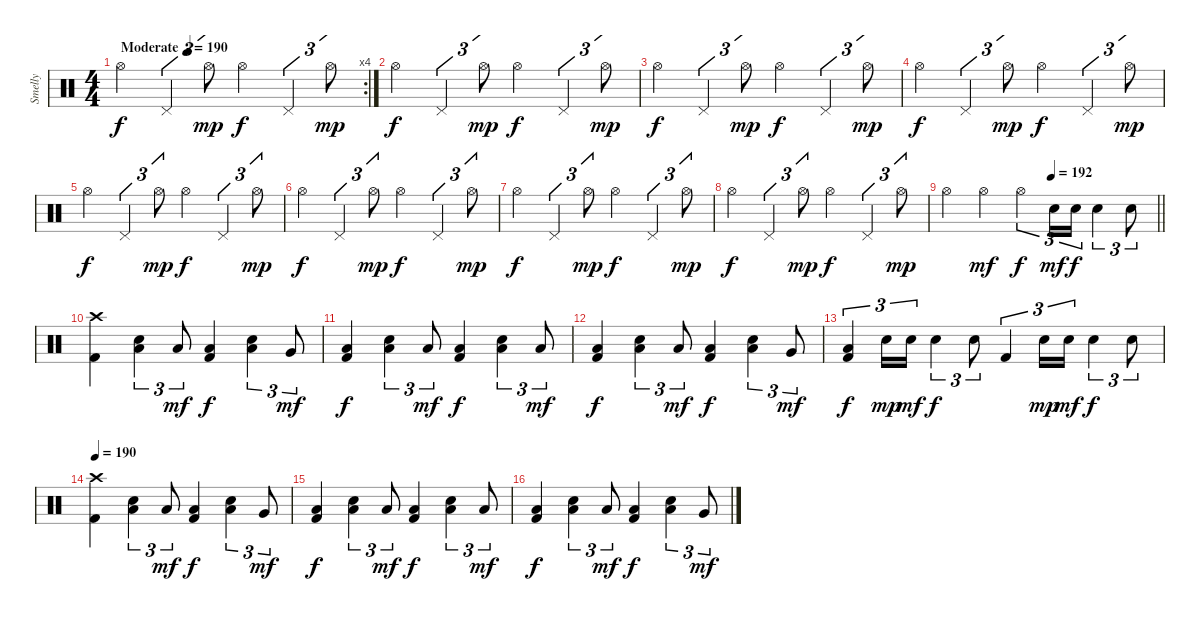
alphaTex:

\track ("Smelly" "Smelly") {instrument percussion}
\staff {score}
\articulation defaults
\rc 4
\ts (4 4)
\tempo (190 "Moderate")
\clef neutral
\ks c "Hi-Hat (open)".4{dy f} "Pedal Hi-Hat (hit)".4{tu (3 2)} "Hi-Hat (open)".8{tu (3 2) dy mp} "Hi-Hat (open)".4{dy f} "Pedal Hi-Hat (hit)".4{tu (3 2)} "Hi-Hat (open)".8{tu (3 2) dy mp}
|
"Hi-Hat (open)".4{dy f} "Pedal Hi-Hat (hit)".4{tu (3 2)} "Hi-Hat (open)".8{tu (3 2) dy mp} "Hi-Hat (open)".4{dy f} "Pedal Hi-Hat (hit)".4{tu (3 2)} "Hi-Hat (open)".8{tu (3 2) dy mp} |
"Hi-Hat (open)".4{dy f} "Pedal Hi-Hat (hit)".4{tu (3 2)} "Hi-Hat (open)".8{tu (3 2) dy mp} "Hi-Hat (open)".4{dy f} "Pedal Hi-Hat (hit)".4{tu (3 2)} "Hi-Hat (open)".8{tu (3 2) dy mp} |
"Hi-Hat (open)".4{dy f} "Pedal Hi-Hat (hit)".4{tu (3 2)} "Hi-Hat (open)".8{tu (3 2) dy mp} "Hi-Hat (open)".4{dy f} "Pedal Hi-Hat (hit)".4{tu (3 2)} "Hi-Hat (open)".8{tu (3 2) dy mp} |
"Hi-Hat (open)".4{dy f} "Pedal Hi-Hat (hit)".4{tu (3 2)} "Hi-Hat (open)".8{tu (3 2) dy mp} "Hi-Hat (open)".4{dy f} "Pedal Hi-Hat (hit)".4{tu (3 2)} "Hi-Hat (open)".8{tu (3 2) dy mp} |
"Hi-Hat (open)".4{dy f} "Pedal Hi-Hat (hit)".4{tu (3 2)} "Hi-Hat (open)".8{tu (3 2) dy mp} "Hi-Hat (open)".4{dy f} "Pedal Hi-Hat (hit)".4{tu (3 2)} "Hi-Hat (open)".8{tu (3 2) dy mp} |
"Hi-Hat (open)".4{dy f} "Pedal Hi-Hat (hit)".4{tu (3 2)} "Hi-Hat (open)".8{tu (3 2) dy mp} "Hi-Hat (open)".4{dy f} "Pedal Hi-Hat (hit)".4{tu (3 2)} "Hi-Hat (open)".8{tu (3 2) dy mp} |
"Hi-Hat (open)".4{dy f} "Pedal Hi-Hat (hit)".4{tu (3 2)} "Hi-Hat (open)".8{tu (3 2) dy mp} "Hi-Hat (open)".4{dy f} "Pedal Hi-Hat (hit)".4{tu (3 2)} "Hi-Hat (open)".8{tu (3 2) dy mp} |
\tempo (192 0.5)
\barLineRight lightlight "Hi-Hat (open)".4 "Hi-Hat (open)".4{dy mf} "Hi-Hat (open)".4{tu (3 2) dy f} "Electric Snare (hit)".16{tu (3 2) dy mf} "Electric Snare (hit)".16{tu (3 2) dy f} "Electric Snare (hit)".4{tu (3 2)} "Electric Snare (hit)".8{tu (3 2)}
|
\section ("" "")
("Crash high (hit)" "Kick (hit) 2").4 ("Electric Snare (hit)" "Low Floor Tom (hit)").4{tu (3 2)} "Low Floor Tom (hit)".8{tu (3 2) dy mf} ("Low Floor Tom (hit)" "Kick (hit) 2").4{dy f} ("Electric Snare (hit)" "Low Floor Tom (hit)").4{tu (3 2)} "Very Low Tom (hit)".8{tu (3 2) dy mf} |
("Low Floor Tom (hit)" "Kick (hit) 2").4{dy f} ("Electric Snare (hit)" "Low Floor Tom (hit)").4{tu (3 2)} "Low Floor Tom (hit)".8{tu (3 2) dy mf} ("Low Floor Tom (hit)" "Kick (hit) 2").4{dy f} ("Electric Snare (hit)" "Low Floor Tom (hit)").4{tu (3 2)} "Low Floor Tom (hit)".8{tu (3 2) dy mf} |
("Low Floor Tom (hit)" "Kick (hit) 2").4{dy f} ("Electric Snare (hit)" "Low Floor Tom (hit)").4{tu (3 2)} "Low Floor Tom (hit)".8{tu (3 2) dy mf} ("Low Floor Tom (hit)" "Kick (hit) 2").4{dy f} ("Electric Snare (hit)" "Low Floor Tom (hit)").4{tu (3 2)} "Very Low Tom (hit)".8{tu (3 2) dy mf} |
("Low Floor Tom (hit)" "Kick (hit) 2").4{tu (3 2) dy f} "Electric Snare (hit)".16{tu (3 2) dy mp} "Electric Snare (hit)".16{tu (3 2) dy mf} "Electric Snare (hit)".4{tu (3 2) dy f} "Electric Snare (hit)".8{tu (3 2)} "Kick (hit) 2".4{tu (3 2)} "Electric Snare (hit)".16{tu (3 2) dy mp} "Electric Snare (hit)".16{tu (3 2) dy mf} "Electric Snare (hit)".4{tu (3 2) dy f} "Electric Snare (hit)".8{tu (3 2)} |
\tempo 190
("Crash high (hit)" "Kick (hit) 2").4 ("Electric Snare (hit)" "Low Floor Tom (hit)").4{tu (3 2)} "Low Floor Tom (hit)".8{tu (3 2) dy mf} ("Low Floor Tom (hit)" "Kick (hit) 2").4{dy f} ("Electric Snare (hit)" "Low Floor Tom (hit)").4{tu (3 2)} "Very Low Tom (hit)".8{tu (3 2) dy mf} |
("Low Floor Tom (hit)" "Kick (hit) 2").4{dy f} ("Electric Snare (hit)" "Low Floor Tom (hit)").4{tu (3 2)} "Low Floor Tom (hit)".8{tu (3 2) dy mf} ("Low Floor Tom (hit)" "Kick (hit) 2").4{dy f} ("Electric Snare (hit)" "Low Floor Tom (hit)").4{tu (3 2)} "Low Floor Tom (hit)".8{tu (3 2) dy mf} |
("Low Floor Tom (hit)" "Kick (hit) 2").4{dy f} ("Electric Snare (hit)" "Low Floor Tom (hit)").4{tu (3 2)} "Low Floor Tom (hit)".8{tu (3 2) dy mf} ("Low Floor Tom (hit)" "Kick (hit) 2").4{dy f} ("Electric Snare (hit)" "Low Floor Tom (hit)").4{tu (3 2)} "Very Low Tom (hit)".8{tu (3 2) dy mf}
